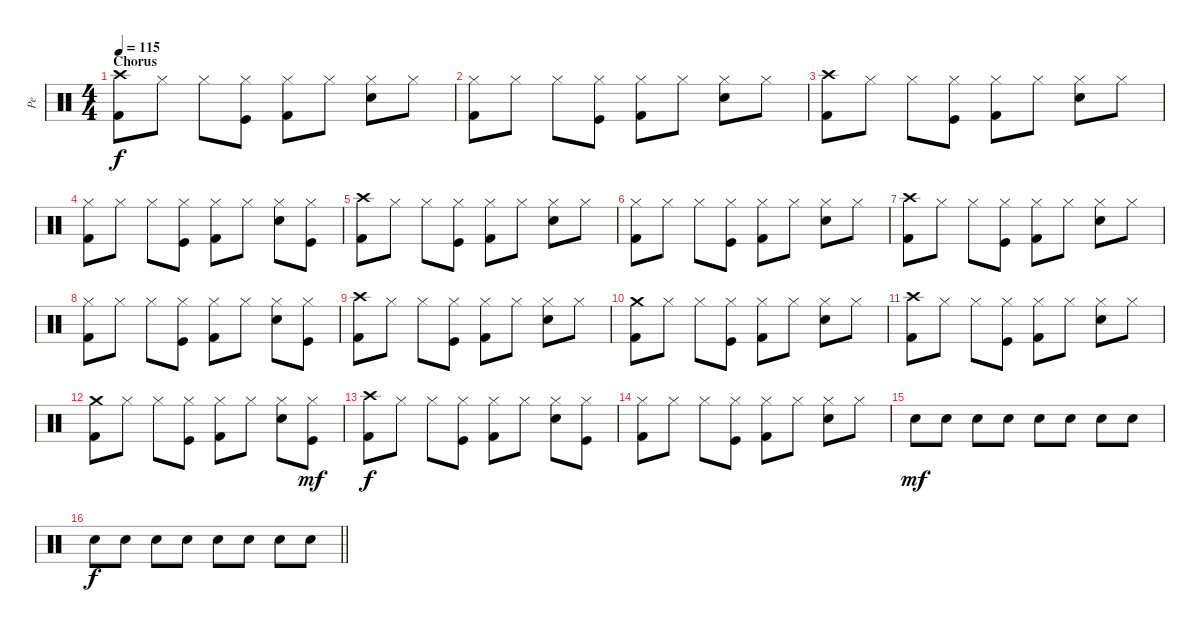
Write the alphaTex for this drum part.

\track ("Pe" "Pe") {instrument percussion}
\staff {score}
\articulation defaults
\ts (4 4)
\section ("" "Chorus")
\tempo 115
\clef neutral
\ks c
("Kick (hit) 2" "Crash high (hit)").8{dy f} "Hi-Hat (closed)".8 "Hi-Hat (closed)".8 ("Kick (hit)" "Hi-Hat (closed)").8 ("Kick (hit) 2" "Hi-Hat (closed)").8 "Hi-Hat (closed)".8 ("Electric Snare (hit)" "Hi-Hat (closed)").8 "Hi-Hat (closed)".8 |
("Kick (hit) 2" "Hi-Hat (closed)").8 "Hi-Hat (closed)".8 "Hi-Hat (closed)".8 ("Kick (hit)" "Hi-Hat (closed)").8 ("Kick (hit) 2" "Hi-Hat (closed)").8 "Hi-Hat (closed)".8 ("Electric Snare (hit)" "Hi-Hat (closed)").8 "Hi-Hat (closed)".8 |
("Kick (hit) 2" "Crash high (hit)").8 "Hi-Hat (closed)".8 "Hi-Hat (closed)".8 ("Kick (hit)" "Hi-Hat (closed)").8 ("Kick (hit) 2" "Hi-Hat (closed)").8 "Hi-Hat (closed)".8 ("Electric Snare (hit)" "Hi-Hat (closed)").8 "Hi-Hat (closed)".8 |
("Kick (hit) 2" "Hi-Hat (closed)").8 "Hi-Hat (closed)".8 "Hi-Hat (closed)".8 ("Kick (hit)" "Hi-Hat (closed)").8 ("Kick (hit) 2" "Hi-Hat (closed)").8 "Hi-Hat (closed)".8 ("Electric Snare (hit)" "Hi-Hat (closed)").8 ("Kick (hit)" "Hi-Hat (closed)").8 |
("Kick (hit) 2" "Crash high (hit)").8 "Hi-Hat (closed)".8 "Hi-Hat (closed)".8 ("Kick (hit)" "Hi-Hat (closed)").8 ("Kick (hit) 2" "Hi-Hat (closed)").8 "Hi-Hat (closed)".8 ("Electric Snare (hit)" "Hi-Hat (closed)").8 "Hi-Hat (closed)".8 |
("Kick (hit) 2" "Hi-Hat (closed)").8 "Hi-Hat (closed)".8 "Hi-Hat (closed)".8 ("Kick (hit)" "Hi-Hat (closed)").8 ("Kick (hit) 2" "Hi-Hat (closed)").8 "Hi-Hat (closed)".8 ("Electric Snare (hit)" "Hi-Hat (closed)").8 "Hi-Hat (closed)".8 |
("Kick (hit) 2" "Crash high (hit)").8 "Hi-Hat (closed)".8 "Hi-Hat (closed)".8 ("Kick (hit)" "Hi-Hat (closed)").8 ("Kick (hit) 2" "Hi-Hat (closed)").8 "Hi-Hat (closed)".8 ("Electric Snare (hit)" "Hi-Hat (closed)").8 "Hi-Hat (closed)".8 |
("Kick (hit) 2" "Hi-Hat (closed)").8 "Hi-Hat (closed)".8 "Hi-Hat (closed)".8 ("Kick (hit)" "Hi-Hat (closed)").8 ("Kick (hit) 2" "Hi-Hat (closed)").8 "Hi-Hat (closed)".8 ("Electric Snare (hit)" "Hi-Hat (closed)").8 ("Kick (hit)" "Hi-Hat (closed)").8 |
("Kick (hit) 2" "Crash high (hit)").8 "Hi-Hat (closed)".8 "Hi-Hat (closed)".8 ("Kick (hit)" "Hi-Hat (closed)").8 ("Kick (hit) 2" "Hi-Hat (closed)").8 "Hi-Hat (closed)".8 ("Electric Snare (hit)" "Hi-Hat (closed)").8 "Hi-Hat (closed)".8 |
("Kick (hit) 2" "Crash medium (hit)").8 "Hi-Hat (closed)".8 "Hi-Hat (closed)".8 ("Kick (hit)" "Hi-Hat (closed)").8 ("Kick (hit) 2" "Hi-Hat (closed)").8 "Hi-Hat (closed)".8 ("Electric Snare (hit)" "Hi-Hat (closed)").8 "Hi-Hat (closed)".8 |
("Kick (hit) 2" "Crash high (hit)").8 "Hi-Hat (closed)".8 "Hi-Hat (closed)".8 ("Kick (hit)" "Hi-Hat (closed)").8 ("Kick (hit) 2" "Hi-Hat (closed)").8 "Hi-Hat (closed)".8 ("Electric Snare (hit)" "Hi-Hat (closed)").8 "Hi-Hat (closed)".8 |
("Kick (hit) 2" "Crash medium (hit)").8 "Hi-Hat (closed)".8 "Hi-Hat (closed)".8 ("Kick (hit)" "Hi-Hat (closed)").8 ("Kick (hit) 2" "Hi-Hat (closed)").8 "Hi-Hat (closed)".8 ("Electric Snare (hit)" "Hi-Hat (closed)").8 ("Kick (hit)" "Hi-Hat (closed)").8{dy mf} |
("Kick (hit) 2" "Crash high (hit)").8{dy f} "Hi-Hat (closed)".8 "Hi-Hat (closed)".8 ("Kick (hit)" "Hi-Hat (closed)").8 ("Kick (hit) 2" "Hi-Hat (closed)").8 "Hi-Hat (closed)".8 ("Electric Snare (hit)" "Hi-Hat (closed)").8 ("Kick (hit)" "Hi-Hat (closed)").8 |
("Kick (hit) 2" "Hi-Hat (closed)").8 "Hi-Hat (closed)".8 "Hi-Hat (closed)".8 ("Kick (hit)" "Hi-Hat (closed)").8 ("Kick (hit) 2" "Hi-Hat (closed)").8 "Hi-Hat (closed)".8 ("Electric Snare (hit)" "Hi-Hat (closed)").8 "Hi-Hat (closed)".8 |
"Electric Snare (hit)".8{dy mf} "Electric Snare (hit)".8 "Electric Snare (hit)".8 "Electric Snare (hit)".8 "Electric Snare (hit)".8 "Electric Snare (hit)".8 "Electric Snare (hit)".8 "Electric Snare (hit)".8 |
\barLineRight lightlight "Electric Snare (hit)".8{dy f} "Electric Snare (hit)".8 "Electric Snare (hit)".8 "Electric Snare (hit)".8 "Electric Snare (hit)".8 "Electric Snare (hit)".8 "Electric Snare (hit)".8 "Electric Snare (hit)".8
